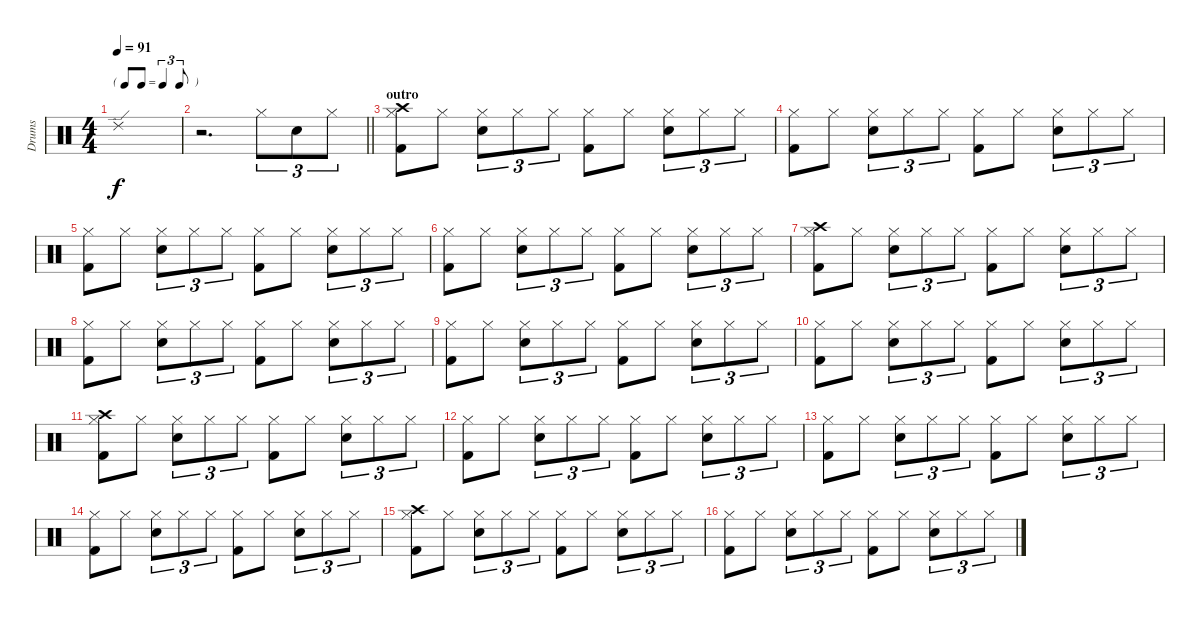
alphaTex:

\track ("Drums" "Drums") {instrument percussion}
\staff {score}
\articulation defaults
\ts (4 4)
\tf triplet8th
\tempo 91
\clef neutral
\ks c "Ride (edge) 2".1{dy f}
|
\barLineRight lightlight
r.2{d} "Hi-Hat (closed)".8{tu (3 2)} "Snare (hit) 2".8{tu (3 2)} "Hi-Hat (closed)".8{tu (3 2)} |
\section ("" "outro")
("Crash high (hit)" "Hi-Hat (closed)" "Kick (hit) 2").8 "Hi-Hat (closed)".8 ("Hi-Hat (closed)" "Snare (hit) 2").8{tu (3 2)} "Hi-Hat (closed)".8{tu (3 2)} "Hi-Hat (closed)".8{tu (3 2)} ("Hi-Hat (closed)" "Kick (hit) 2").8 "Hi-Hat (closed)".8 ("Hi-Hat (closed)" "Snare (hit) 2").8{tu (3 2)} "Hi-Hat (closed)".8{tu (3 2)} "Hi-Hat (closed)".8{tu (3 2)} |
("Hi-Hat (closed)" "Kick (hit) 2").8 "Hi-Hat (closed)".8 ("Hi-Hat (closed)" "Snare (hit) 2").8{tu (3 2)} "Hi-Hat (closed)".8{tu (3 2)} "Hi-Hat (closed)".8{tu (3 2)} ("Hi-Hat (closed)" "Kick (hit) 2").8 "Hi-Hat (closed)".8 ("Hi-Hat (closed)" "Snare (hit) 2").8{tu (3 2)} "Hi-Hat (closed)".8{tu (3 2)} "Hi-Hat (closed)".8{tu (3 2)} |
("Hi-Hat (closed)" "Kick (hit) 2").8 "Hi-Hat (closed)".8 ("Hi-Hat (closed)" "Snare (hit) 2").8{tu (3 2)} "Hi-Hat (closed)".8{tu (3 2)} "Hi-Hat (closed)".8{tu (3 2)} ("Hi-Hat (closed)" "Kick (hit) 2").8 "Hi-Hat (closed)".8 ("Hi-Hat (closed)" "Snare (hit) 2").8{tu (3 2)} "Hi-Hat (closed)".8{tu (3 2)} "Hi-Hat (closed)".8{tu (3 2)} |
("Hi-Hat (closed)" "Kick (hit) 2").8 "Hi-Hat (closed)".8 ("Hi-Hat (closed)" "Snare (hit) 2").8{tu (3 2)} "Hi-Hat (closed)".8{tu (3 2)} "Hi-Hat (closed)".8{tu (3 2)} ("Hi-Hat (closed)" "Kick (hit) 2").8 "Hi-Hat (closed)".8 ("Hi-Hat (closed)" "Snare (hit) 2").8{tu (3 2)} "Hi-Hat (closed)".8{tu (3 2)} "Hi-Hat (closed)".8{tu (3 2)} |
("Crash high (hit)" "Hi-Hat (closed)" "Kick (hit) 2").8 "Hi-Hat (closed)".8 ("Hi-Hat (closed)" "Snare (hit) 2").8{tu (3 2)} "Hi-Hat (closed)".8{tu (3 2)} "Hi-Hat (closed)".8{tu (3 2)} ("Hi-Hat (closed)" "Kick (hit) 2").8 "Hi-Hat (closed)".8 ("Hi-Hat (closed)" "Snare (hit) 2").8{tu (3 2)} "Hi-Hat (closed)".8{tu (3 2)} "Hi-Hat (closed)".8{tu (3 2)} |
("Hi-Hat (closed)" "Kick (hit) 2").8 "Hi-Hat (closed)".8 ("Hi-Hat (closed)" "Snare (hit) 2").8{tu (3 2)} "Hi-Hat (closed)".8{tu (3 2)} "Hi-Hat (closed)".8{tu (3 2)} ("Hi-Hat (closed)" "Kick (hit) 2").8 "Hi-Hat (closed)".8 ("Hi-Hat (closed)" "Snare (hit) 2").8{tu (3 2)} "Hi-Hat (closed)".8{tu (3 2)} "Hi-Hat (closed)".8{tu (3 2)} |
("Hi-Hat (closed)" "Kick (hit) 2").8 "Hi-Hat (closed)".8 ("Hi-Hat (closed)" "Snare (hit) 2").8{tu (3 2)} "Hi-Hat (closed)".8{tu (3 2)} "Hi-Hat (closed)".8{tu (3 2)} ("Hi-Hat (closed)" "Kick (hit) 2").8 "Hi-Hat (closed)".8 ("Hi-Hat (closed)" "Snare (hit) 2").8{tu (3 2)} "Hi-Hat (closed)".8{tu (3 2)} "Hi-Hat (closed)".8{tu (3 2)} |
("Hi-Hat (closed)" "Kick (hit) 2").8 "Hi-Hat (closed)".8 ("Hi-Hat (closed)" "Snare (hit) 2").8{tu (3 2)} "Hi-Hat (closed)".8{tu (3 2)} "Hi-Hat (closed)".8{tu (3 2)} ("Hi-Hat (closed)" "Kick (hit) 2").8 "Hi-Hat (closed)".8 ("Hi-Hat (closed)" "Snare (hit) 2").8{tu (3 2)} "Hi-Hat (closed)".8{tu (3 2)} "Hi-Hat (closed)".8{tu (3 2)} |
("Crash high (hit)" "Hi-Hat (closed)" "Kick (hit) 2").8 "Hi-Hat (closed)".8 ("Hi-Hat (closed)" "Snare (hit) 2").8{tu (3 2)} "Hi-Hat (closed)".8{tu (3 2)} "Hi-Hat (closed)".8{tu (3 2)} ("Hi-Hat (closed)" "Kick (hit) 2").8 "Hi-Hat (closed)".8 ("Hi-Hat (closed)" "Snare (hit) 2").8{tu (3 2)} "Hi-Hat (closed)".8{tu (3 2)} "Hi-Hat (closed)".8{tu (3 2)} |
("Hi-Hat (closed)" "Kick (hit) 2").8 "Hi-Hat (closed)".8 ("Hi-Hat (closed)" "Snare (hit) 2").8{tu (3 2)} "Hi-Hat (closed)".8{tu (3 2)} "Hi-Hat (closed)".8{tu (3 2)} ("Hi-Hat (closed)" "Kick (hit) 2").8 "Hi-Hat (closed)".8 ("Hi-Hat (closed)" "Snare (hit) 2").8{tu (3 2)} "Hi-Hat (closed)".8{tu (3 2)} "Hi-Hat (closed)".8{tu (3 2)} |
("Hi-Hat (closed)" "Kick (hit) 2").8 "Hi-Hat (closed)".8 ("Hi-Hat (closed)" "Snare (hit) 2").8{tu (3 2)} "Hi-Hat (closed)".8{tu (3 2)} "Hi-Hat (closed)".8{tu (3 2)} ("Hi-Hat (closed)" "Kick (hit) 2").8 "Hi-Hat (closed)".8 ("Hi-Hat (closed)" "Snare (hit) 2").8{tu (3 2)} "Hi-Hat (closed)".8{tu (3 2)} "Hi-Hat (closed)".8{tu (3 2)} |
("Hi-Hat (closed)" "Kick (hit) 2").8 "Hi-Hat (closed)".8 ("Hi-Hat (closed)" "Snare (hit) 2").8{tu (3 2)} "Hi-Hat (closed)".8{tu (3 2)} "Hi-Hat (closed)".8{tu (3 2)} ("Hi-Hat (closed)" "Kick (hit) 2").8 "Hi-Hat (closed)".8 ("Hi-Hat (closed)" "Snare (hit) 2").8{tu (3 2)} "Hi-Hat (closed)".8{tu (3 2)} "Hi-Hat (closed)".8{tu (3 2)} |
("Crash high (hit)" "Hi-Hat (closed)" "Kick (hit) 2").8 "Hi-Hat (closed)".8 ("Hi-Hat (closed)" "Snare (hit) 2").8{tu (3 2)} "Hi-Hat (closed)".8{tu (3 2)} "Hi-Hat (closed)".8{tu (3 2)} ("Hi-Hat (closed)" "Kick (hit) 2").8 "Hi-Hat (closed)".8 ("Hi-Hat (closed)" "Snare (hit) 2").8{tu (3 2)} "Hi-Hat (closed)".8{tu (3 2)} "Hi-Hat (closed)".8{tu (3 2)} |
("Hi-Hat (closed)" "Kick (hit) 2").8 "Hi-Hat (closed)".8 ("Hi-Hat (closed)" "Snare (hit) 2").8{tu (3 2)} "Hi-Hat (closed)".8{tu (3 2)} "Hi-Hat (closed)".8{tu (3 2)} ("Hi-Hat (closed)" "Kick (hit) 2").8 "Hi-Hat (closed)".8 ("Hi-Hat (closed)" "Snare (hit) 2").8{tu (3 2)} "Hi-Hat (closed)".8{tu (3 2)} "Hi-Hat (closed)".8{tu (3 2)}
